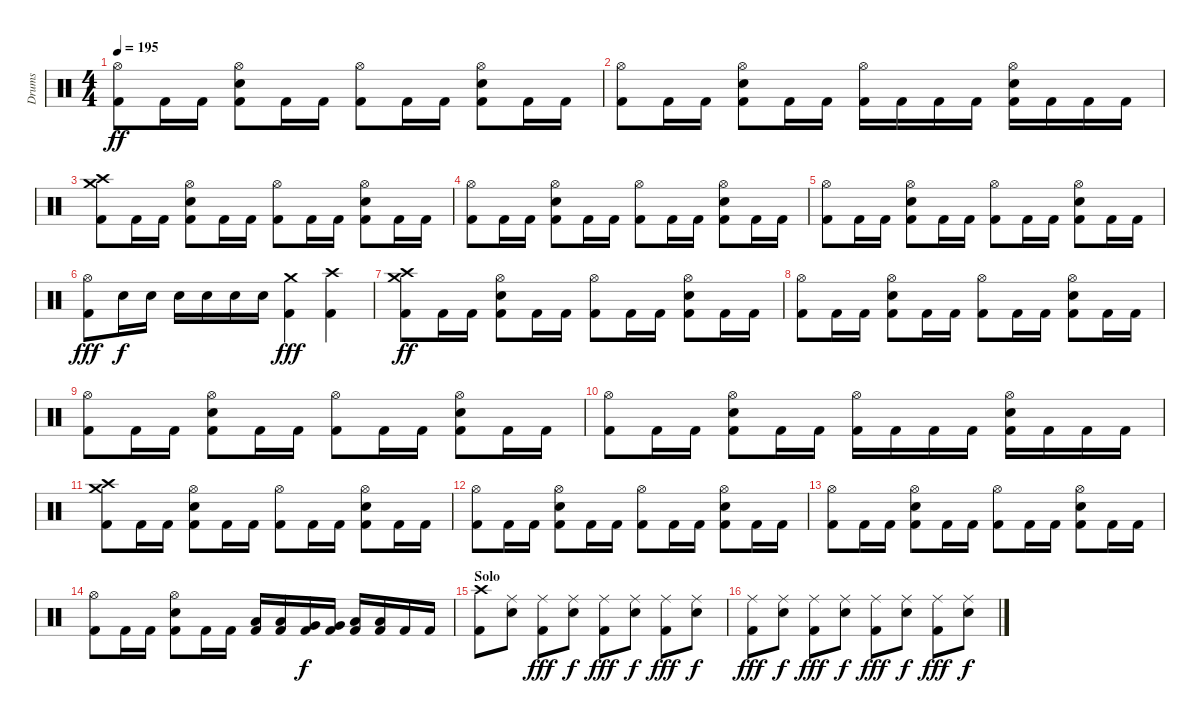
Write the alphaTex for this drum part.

\track ("Drums" "Drums") {instrument percussion}
\staff {score}
\articulation defaults
\ts (4 4)
\tempo 195
\clef neutral
\ks c
("Hi-Hat (open)" "Kick (hit) 2").8{dy ff} "Kick (hit) 2".16 "Kick (hit) 2".16 ("Hi-Hat (open)" "Snare (hit) 2" "Kick (hit) 2").8 "Kick (hit) 2".16 "Kick (hit) 2".16 ("Hi-Hat (open)" "Kick (hit) 2").8 "Kick (hit) 2".16 "Kick (hit) 2".16 ("Hi-Hat (open)" "Snare (hit) 2" "Kick (hit) 2").8 "Kick (hit) 2".16 "Kick (hit) 2".16 |
("Hi-Hat (open)" "Kick (hit) 2").8 "Kick (hit) 2".16 "Kick (hit) 2".16 ("Hi-Hat (open)" "Snare (hit) 2" "Kick (hit) 2").8 "Kick (hit) 2".16 "Kick (hit) 2".16 ("Hi-Hat (open)" "Kick (hit) 2").16 "Kick (hit) 2".16 "Kick (hit) 2".16 "Kick (hit) 2".16 ("Hi-Hat (open)" "Snare (hit) 2" "Kick (hit) 2").16 "Kick (hit) 2".16 "Kick (hit) 2".16 "Kick (hit) 2".16 |
("Crash high (hit)" "Crash medium (hit)" "Kick (hit) 2").8 "Kick (hit) 2".16 "Kick (hit) 2".16 ("Hi-Hat (open)" "Snare (hit) 2" "Kick (hit) 2").8 "Kick (hit) 2".16 "Kick (hit) 2".16 ("Hi-Hat (open)" "Kick (hit) 2").8 "Kick (hit) 2".16 "Kick (hit) 2".16 ("Hi-Hat (open)" "Snare (hit) 2" "Kick (hit) 2").8 "Kick (hit) 2".16 "Kick (hit) 2".16 |
("Hi-Hat (open)" "Kick (hit) 2").8 "Kick (hit) 2".16 "Kick (hit) 2".16 ("Hi-Hat (open)" "Snare (hit) 2" "Kick (hit) 2").8 "Kick (hit) 2".16 "Kick (hit) 2".16 ("Hi-Hat (open)" "Kick (hit) 2").8 "Kick (hit) 2".16 "Kick (hit) 2".16 ("Hi-Hat (open)" "Snare (hit) 2" "Kick (hit) 2").8 "Kick (hit) 2".16 "Kick (hit) 2".16 |
("Hi-Hat (open)" "Kick (hit) 2").8 "Kick (hit) 2".16 "Kick (hit) 2".16 ("Hi-Hat (open)" "Snare (hit) 2" "Kick (hit) 2").8 "Kick (hit) 2".16 "Kick (hit) 2".16 ("Hi-Hat (open)" "Kick (hit) 2").8 "Kick (hit) 2".16 "Kick (hit) 2".16 ("Hi-Hat (open)" "Snare (hit) 2" "Kick (hit) 2").8 "Kick (hit) 2".16 "Kick (hit) 2".16 |
("Hi-Hat (open)" "Kick (hit) 2").8{dy fff} "Snare (hit) 2".16{dy f} "Snare (hit) 2".16 "Snare (hit) 2".16 "Snare (hit) 2".16 "Snare (hit) 2".16 "Snare (hit) 2".16 ("Crash medium (hit)" "Kick (hit) 2").4{dy fff} ("Crash high (hit)" "Kick (hit) 2").4 |
("Crash high (hit)" "Crash medium (hit)" "Kick (hit) 2").8{dy ff} "Kick (hit) 2".16 "Kick (hit) 2".16 ("Hi-Hat (open)" "Snare (hit) 2" "Kick (hit) 2").8 "Kick (hit) 2".16 "Kick (hit) 2".16 ("Hi-Hat (open)" "Kick (hit) 2").8 "Kick (hit) 2".16 "Kick (hit) 2".16 ("Hi-Hat (open)" "Snare (hit) 2" "Kick (hit) 2").8 "Kick (hit) 2".16 "Kick (hit) 2".16 |
("Hi-Hat (open)" "Kick (hit) 2").8 "Kick (hit) 2".16 "Kick (hit) 2".16 ("Hi-Hat (open)" "Snare (hit) 2" "Kick (hit) 2").8 "Kick (hit) 2".16 "Kick (hit) 2".16 ("Hi-Hat (open)" "Kick (hit) 2").8 "Kick (hit) 2".16 "Kick (hit) 2".16 ("Hi-Hat (open)" "Snare (hit) 2" "Kick (hit) 2").8 "Kick (hit) 2".16 "Kick (hit) 2".16 |
("Hi-Hat (open)" "Kick (hit) 2").8 "Kick (hit) 2".16 "Kick (hit) 2".16 ("Hi-Hat (open)" "Snare (hit) 2" "Kick (hit) 2").8 "Kick (hit) 2".16 "Kick (hit) 2".16 ("Hi-Hat (open)" "Kick (hit) 2").8 "Kick (hit) 2".16 "Kick (hit) 2".16 ("Hi-Hat (open)" "Snare (hit) 2" "Kick (hit) 2").8 "Kick (hit) 2".16 "Kick (hit) 2".16 |
("Hi-Hat (open)" "Kick (hit) 2").8 "Kick (hit) 2".16 "Kick (hit) 2".16 ("Hi-Hat (open)" "Snare (hit) 2" "Kick (hit) 2").8 "Kick (hit) 2".16 "Kick (hit) 2".16 ("Hi-Hat (open)" "Kick (hit) 2").16 "Kick (hit) 2".16 "Kick (hit) 2".16 "Kick (hit) 2".16 ("Hi-Hat (open)" "Snare (hit) 2" "Kick (hit) 2").16 "Kick (hit) 2".16 "Kick (hit) 2".16 "Kick (hit) 2".16 |
("Crash high (hit)" "Crash medium (hit)" "Kick (hit) 2").8 "Kick (hit) 2".16 "Kick (hit) 2".16 ("Hi-Hat (open)" "Snare (hit) 2" "Kick (hit) 2").8 "Kick (hit) 2".16 "Kick (hit) 2".16 ("Hi-Hat (open)" "Kick (hit) 2").8 "Kick (hit) 2".16 "Kick (hit) 2".16 ("Hi-Hat (open)" "Snare (hit) 2" "Kick (hit) 2").8 "Kick (hit) 2".16 "Kick (hit) 2".16 |
("Hi-Hat (open)" "Kick (hit) 2").8 "Kick (hit) 2".16 "Kick (hit) 2".16 ("Hi-Hat (open)" "Snare (hit) 2" "Kick (hit) 2").8 "Kick (hit) 2".16 "Kick (hit) 2".16 ("Hi-Hat (open)" "Kick (hit) 2").8 "Kick (hit) 2".16 "Kick (hit) 2".16 ("Hi-Hat (open)" "Snare (hit) 2" "Kick (hit) 2").8 "Kick (hit) 2".16 "Kick (hit) 2".16 |
("Hi-Hat (open)" "Kick (hit) 2").8 "Kick (hit) 2".16 "Kick (hit) 2".16 ("Hi-Hat (open)" "Snare (hit) 2" "Kick (hit) 2").8 "Kick (hit) 2".16 "Kick (hit) 2".16 ("Hi-Hat (open)" "Kick (hit) 2").8 "Kick (hit) 2".16 "Kick (hit) 2".16 ("Hi-Hat (open)" "Snare (hit) 2" "Kick (hit) 2").8 "Kick (hit) 2".16 "Kick (hit) 2".16 |
("Hi-Hat (open)" "Kick (hit) 2").8 "Kick (hit) 2".16 "Kick (hit) 2".16 ("Hi-Hat (open)" "Snare (hit) 2" "Kick (hit) 2").8 "Kick (hit) 2".16 "Kick (hit) 2".16 ("Low Tom (hit)" "Kick (hit) 2").16 ("Low Tom (hit)" "Kick (hit) 2").16 ("Very Low Tom (hit)" "Kick (hit) 2").16{dy f} ("Very Low Tom (hit)" "Kick (hit) 2").16 ("Low Floor Tom (hit)" "Kick (hit) 2").16 ("Low Floor Tom (hit)" "Kick (hit) 2").16 "Kick (hit) 2".16 "Kick (hit) 2".16 |
\section ("" "Solo")
("Crash high (hit)" "Kick (hit) 2").8 ("Ride (middle)" "Snare (hit) 2").8 ("Ride (middle)" "Kick (hit) 2").8{dy fff} ("Ride (middle)" "Snare (hit) 2").8{dy f} ("Ride (middle)" "Kick (hit) 2").8{dy fff} ("Ride (middle)" "Snare (hit) 2").8{dy f} ("Ride (middle)" "Kick (hit) 2").8{dy fff} ("Ride (middle)" "Snare (hit) 2").8{dy f} |
("Ride (middle)" "Kick (hit) 2").8{dy fff} ("Ride (middle)" "Snare (hit) 2").8{dy f} ("Ride (middle)" "Kick (hit) 2").8{dy fff} ("Ride (middle)" "Snare (hit) 2").8{dy f} ("Ride (middle)" "Kick (hit) 2").8{dy fff} ("Ride (middle)" "Snare (hit) 2").8{dy f} ("Ride (middle)" "Kick (hit) 2").8{dy fff} ("Ride (middle)" "Snare (hit) 2").8{dy f}
